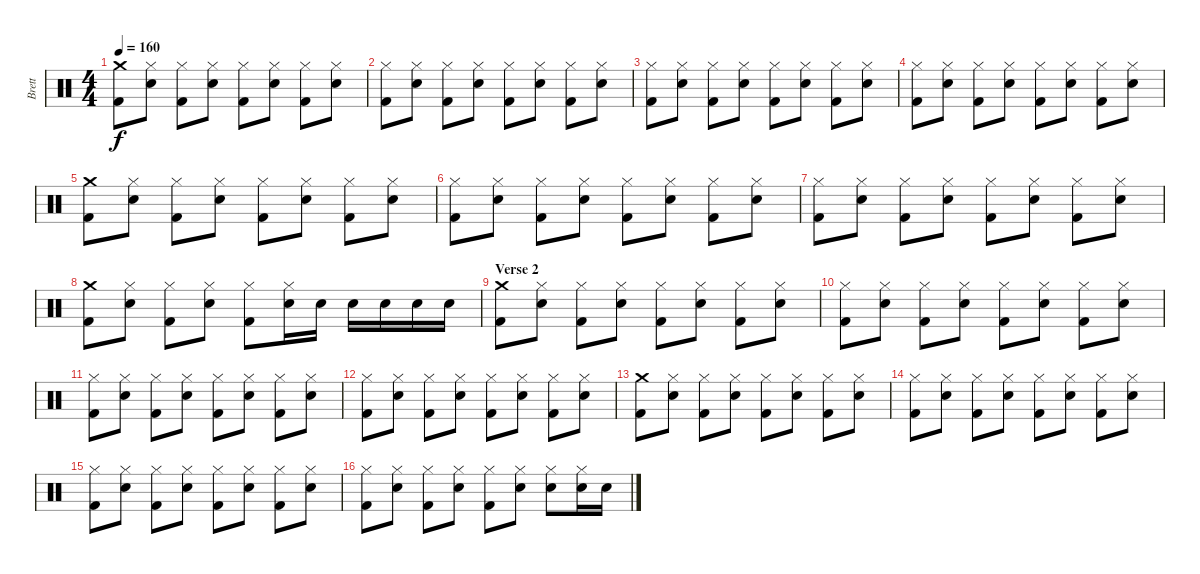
\track ("Brett" "Brett") {instrument percussion}
\staff {score}
\articulation defaults
\ts (4 4)
\tempo 160
\clef neutral
\ks c
("Crash medium (hit)" "Kick (hit) 2").8{dy f} ("Hi-Hat (closed)" "Snare (hit) 2").8 ("Hi-Hat (closed)" "Kick (hit) 2").8 ("Hi-Hat (closed)" "Snare (hit) 2").8 ("Hi-Hat (closed)" "Kick (hit) 2").8 ("Hi-Hat (closed)" "Snare (hit) 2").8 ("Hi-Hat (closed)" "Kick (hit) 2").8 ("Hi-Hat (closed)" "Snare (hit) 2").8 |
("Hi-Hat (closed)" "Kick (hit) 2").8 ("Hi-Hat (closed)" "Snare (hit) 2").8 ("Hi-Hat (closed)" "Kick (hit) 2").8 ("Hi-Hat (closed)" "Snare (hit) 2").8 ("Hi-Hat (closed)" "Kick (hit) 2").8 ("Hi-Hat (closed)" "Snare (hit) 2").8 ("Hi-Hat (closed)" "Kick (hit) 2").8 ("Hi-Hat (closed)" "Snare (hit) 2").8 |
("Hi-Hat (closed)" "Kick (hit) 2").8 ("Hi-Hat (closed)" "Snare (hit) 2").8 ("Hi-Hat (closed)" "Kick (hit) 2").8 ("Hi-Hat (closed)" "Snare (hit) 2").8 ("Hi-Hat (closed)" "Kick (hit) 2").8 ("Hi-Hat (closed)" "Snare (hit) 2").8 ("Hi-Hat (closed)" "Kick (hit) 2").8 ("Hi-Hat (closed)" "Snare (hit) 2").8 |
("Hi-Hat (closed)" "Kick (hit) 2").8 ("Hi-Hat (closed)" "Snare (hit) 2").8 ("Hi-Hat (closed)" "Kick (hit) 2").8 ("Hi-Hat (closed)" "Snare (hit) 2").8 ("Hi-Hat (closed)" "Kick (hit) 2").8 ("Hi-Hat (closed)" "Snare (hit) 2").8 ("Hi-Hat (closed)" "Kick (hit) 2").8 ("Hi-Hat (closed)" "Snare (hit) 2").8 |
("Crash medium (hit)" "Kick (hit) 2").8 ("Hi-Hat (closed)" "Snare (hit) 2").8 ("Hi-Hat (closed)" "Kick (hit) 2").8 ("Hi-Hat (closed)" "Snare (hit) 2").8 ("Hi-Hat (closed)" "Kick (hit) 2").8 ("Hi-Hat (closed)" "Snare (hit) 2").8 ("Hi-Hat (closed)" "Kick (hit) 2").8 ("Hi-Hat (closed)" "Snare (hit) 2").8 |
("Hi-Hat (closed)" "Kick (hit) 2").8 ("Hi-Hat (closed)" "Snare (hit) 2").8 ("Hi-Hat (closed)" "Kick (hit) 2").8 ("Hi-Hat (closed)" "Snare (hit) 2").8 ("Hi-Hat (closed)" "Kick (hit) 2").8 ("Hi-Hat (closed)" "Snare (hit) 2").8 ("Hi-Hat (closed)" "Kick (hit) 2").8 ("Hi-Hat (closed)" "Snare (hit) 2").8 |
("Hi-Hat (closed)" "Kick (hit) 2").8 ("Hi-Hat (closed)" "Snare (hit) 2").8 ("Hi-Hat (closed)" "Kick (hit) 2").8 ("Hi-Hat (closed)" "Snare (hit) 2").8 ("Hi-Hat (closed)" "Kick (hit) 2").8 ("Hi-Hat (closed)" "Snare (hit) 2").8 ("Hi-Hat (closed)" "Kick (hit) 2").8 ("Hi-Hat (closed)" "Snare (hit) 2").8 |
("Crash medium (hit)" "Kick (hit) 2").8 ("Hi-Hat (closed)" "Snare (hit) 2").8 ("Hi-Hat (closed)" "Kick (hit) 2").8 ("Hi-Hat (closed)" "Snare (hit) 2").8 ("Hi-Hat (closed)" "Kick (hit) 2").8 ("Hi-Hat (closed)" "Snare (hit) 2").16 "Snare (hit) 2".16 "Snare (hit) 2".16 "Snare (hit) 2".16 "Snare (hit) 2".16 "Snare (hit) 2".16 |
\section ("" "Verse 2")
("Crash medium (hit)" "Kick (hit) 2").8 ("Hi-Hat (closed)" "Snare (hit) 2").8 ("Hi-Hat (closed)" "Kick (hit) 2").8 ("Hi-Hat (closed)" "Snare (hit) 2").8 ("Hi-Hat (closed)" "Kick (hit) 2").8 ("Hi-Hat (closed)" "Snare (hit) 2").8 ("Hi-Hat (closed)" "Kick (hit) 2").8 ("Hi-Hat (closed)" "Snare (hit) 2").8 |
("Hi-Hat (closed)" "Kick (hit) 2").8 ("Hi-Hat (closed)" "Snare (hit) 2").8 ("Hi-Hat (closed)" "Kick (hit) 2").8 ("Hi-Hat (closed)" "Snare (hit) 2").8 ("Hi-Hat (closed)" "Kick (hit) 2").8 ("Hi-Hat (closed)" "Snare (hit) 2").8 ("Hi-Hat (closed)" "Kick (hit) 2").8 ("Hi-Hat (closed)" "Snare (hit) 2").8 |
("Hi-Hat (closed)" "Kick (hit) 2").8 ("Hi-Hat (closed)" "Snare (hit) 2").8 ("Hi-Hat (closed)" "Kick (hit) 2").8 ("Hi-Hat (closed)" "Snare (hit) 2").8 ("Hi-Hat (closed)" "Kick (hit) 2").8 ("Hi-Hat (closed)" "Snare (hit) 2").8 ("Hi-Hat (closed)" "Kick (hit) 2").8 ("Hi-Hat (closed)" "Snare (hit) 2").8 |
("Hi-Hat (closed)" "Kick (hit) 2").8 ("Hi-Hat (closed)" "Snare (hit) 2").8 ("Hi-Hat (closed)" "Kick (hit) 2").8 ("Hi-Hat (closed)" "Snare (hit) 2").8 ("Hi-Hat (closed)" "Kick (hit) 2").8 ("Hi-Hat (closed)" "Snare (hit) 2").8 ("Hi-Hat (closed)" "Kick (hit) 2").8 ("Hi-Hat (closed)" "Snare (hit) 2").8 |
("Crash medium (hit)" "Kick (hit) 2").8 ("Hi-Hat (closed)" "Snare (hit) 2").8 ("Hi-Hat (closed)" "Kick (hit) 2").8 ("Hi-Hat (closed)" "Snare (hit) 2").8 ("Hi-Hat (closed)" "Kick (hit) 2").8 ("Hi-Hat (closed)" "Snare (hit) 2").8 ("Hi-Hat (closed)" "Kick (hit) 2").8 ("Hi-Hat (closed)" "Snare (hit) 2").8 |
("Hi-Hat (closed)" "Kick (hit) 2").8 ("Hi-Hat (closed)" "Snare (hit) 2").8 ("Hi-Hat (closed)" "Kick (hit) 2").8 ("Hi-Hat (closed)" "Snare (hit) 2").8 ("Hi-Hat (closed)" "Kick (hit) 2").8 ("Hi-Hat (closed)" "Snare (hit) 2").8 ("Hi-Hat (closed)" "Kick (hit) 2").8 ("Hi-Hat (closed)" "Snare (hit) 2").8 |
("Hi-Hat (closed)" "Kick (hit) 2").8 ("Hi-Hat (closed)" "Snare (hit) 2").8 ("Hi-Hat (closed)" "Kick (hit) 2").8 ("Hi-Hat (closed)" "Snare (hit) 2").8 ("Hi-Hat (closed)" "Kick (hit) 2").8 ("Hi-Hat (closed)" "Snare (hit) 2").8 ("Hi-Hat (closed)" "Kick (hit) 2").8 ("Hi-Hat (closed)" "Snare (hit) 2").8 |
("Hi-Hat (closed)" "Kick (hit) 2").8 ("Hi-Hat (closed)" "Snare (hit) 2").8 ("Hi-Hat (closed)" "Kick (hit) 2").8 ("Hi-Hat (closed)" "Snare (hit) 2").8 ("Hi-Hat (closed)" "Kick (hit) 2").8 ("Hi-Hat (closed)" "Snare (hit) 2").8 ("Hi-Hat (closed)" "Snare (hit) 2").8 ("Hi-Hat (closed)" "Snare (hit) 2").16 "Snare (hit) 2".16
